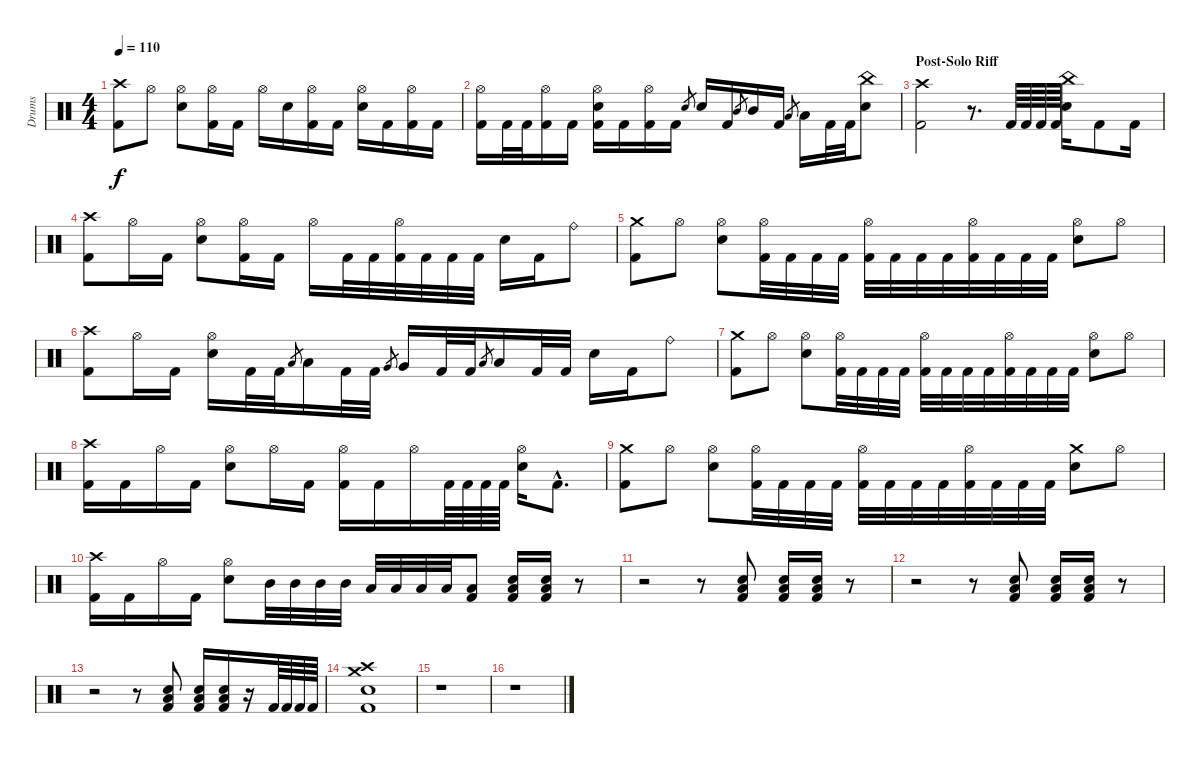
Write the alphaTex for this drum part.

\track ("Drums" "Drums") {instrument percussion}
\staff {score}
\articulation defaults
\ts (4 4)
\tempo 110
\clef neutral
\ks c
("Crash high (hit)" "Kick (hit) 2").8{dy f} "Hi-Hat (open)".8 ("Hi-Hat (open)" "Electric Snare (hit)").8 ("Hi-Hat (open)" "Kick (hit) 2").16 "Kick (hit) 2".16 "Hi-Hat (open)".16 "Electric Snare (hit)".16 ("Hi-Hat (open)" "Kick (hit) 2").16 "Kick (hit) 2".16 ("Hi-Hat (open)" "Electric Snare (hit)").16 "Kick (hit) 2".16 ("Hi-Hat (open)" "Kick (hit) 2").16 "Kick (hit) 2".16 |
("Hi-Hat (open)" "Kick (hit) 2").16 "Kick (hit) 2".32 "Kick (hit) 2".32 ("Hi-Hat (open)" "Kick (hit) 2").16 "Kick (hit) 2".16 ("Hi-Hat (open)" "Electric Snare (hit)" "Kick (hit) 2").16 "Kick (hit) 2".16 ("Hi-Hat (open)" "Kick (hit) 2").16 "Kick (hit) 2".16 "Electric Snare (hit)".8{gr} "Electric Snare (hit)".16 "Kick (hit) 2".16 "Mid Tom (hit)".8{gr} "Mid Tom (hit)".16 "Kick (hit) 2".16 "Low Tom (hit)".8{gr} "Low Tom (hit)".16 "Kick (hit) 2".32 "Kick (hit) 2".32 ("China (hit)" "Electric Snare (hit)").8 |
\section ("" "Post-Solo Riff")
("Crash high (hit)" "Kick (hit) 2").2 r.8{d} "Kick (hit) 2".64 "Kick (hit) 2".64 "Kick (hit) 2".64 "Kick (hit) 2".64 ("China (hit)" "Electric Snare (hit)").16 "Kick (hit) 2".8 "Kick (hit) 2".16 |
("Crash high (hit)" "Kick (hit) 2").8 "Hi-Hat (open)".16 "Kick (hit) 2".16 ("Hi-Hat (open)" "Electric Snare (hit)").8 ("Hi-Hat (open)" "Kick (hit) 2").16 "Kick (hit) 2".16 "Hi-Hat (open)".16 "Kick (hit) 2".32 "Kick (hit) 2".32 ("Hi-Hat (open)" "Kick (hit) 2").32 "Kick (hit) 2".32 "Kick (hit) 2".32 "Kick (hit) 2".32 "Electric Snare (hit)".16 "Kick (hit) 2".16 "Ride (bell)".8 |
("Crash medium (hit)" "Kick (hit) 2").8 "Hi-Hat (open)".8 ("Hi-Hat (open)" "Electric Snare (hit)").8 ("Hi-Hat (open)" "Kick (hit) 2").32 "Kick (hit) 2".32 "Kick (hit) 2".32 "Kick (hit) 2".32 ("Hi-Hat (open)" "Kick (hit) 2").32 "Kick (hit) 2".32 "Kick (hit) 2".32 "Kick (hit) 2".32 ("Hi-Hat (open)" "Kick (hit) 2").32 "Kick (hit) 2".32 "Kick (hit) 2".32 "Kick (hit) 2".32 ("Hi-Hat (open)" "Electric Snare (hit)").8 "Hi-Hat (open)".8 |
("Crash high (hit)" "Kick (hit) 2").8 "Hi-Hat (open)".16 "Kick (hit) 2".16 ("Hi-Hat (open)" "Electric Snare (hit)").16 "Kick (hit) 2".32 "Kick (hit) 2".32 "Low Tom (hit)".8{gr} "Low Tom (hit)".16 "Kick (hit) 2".32 "Kick (hit) 2".32 "Very Low Tom (hit)".8{gr} "Very Low Tom (hit)".16 "Kick (hit) 2".32 "Kick (hit) 2".32 "Low Floor Tom (hit)".8{gr} "Low Floor Tom (hit)".16 "Kick (hit) 2".32 "Kick (hit) 2".32 "Electric Snare (hit)".16 "Kick (hit) 2".16 "Ride (bell)".8 |
("Crash medium (hit)" "Kick (hit) 2").8 "Hi-Hat (open)".8 ("Hi-Hat (open)" "Electric Snare (hit)").8 ("Hi-Hat (open)" "Kick (hit) 2").32 "Kick (hit) 2".32 "Kick (hit) 2".32 "Kick (hit) 2".32 ("Hi-Hat (open)" "Kick (hit) 2").32 "Kick (hit) 2".32 "Kick (hit) 2".32 "Kick (hit) 2".32 ("Hi-Hat (open)" "Kick (hit) 2").32 "Kick (hit) 2".32 "Kick (hit) 2".32 "Kick (hit) 2".32 ("Hi-Hat (open)" "Electric Snare (hit)").8 "Hi-Hat (open)".8 |
("Crash high (hit)" "Kick (hit) 2").16 "Kick (hit) 2".16 "Hi-Hat (open)".16 "Kick (hit) 2".16 ("Hi-Hat (open)" "Electric Snare (hit)").8 "Hi-Hat (open)".16 "Kick (hit) 2".16 ("Hi-Hat (open)" "Kick (hit) 2").16 "Kick (hit) 2".16 "Hi-Hat (open)".16 "Kick (hit) 2".64 "Kick (hit) 2".64 "Kick (hit) 2".64 "Kick (hit) 2".64 ("Hi-Hat (open)" "Electric Snare (hit)").16 "Kick (hit) 2"{hac}.8{d} |
("Crash medium (hit)" "Kick (hit) 2").8 "Hi-Hat (open)".8 ("Hi-Hat (open)" "Electric Snare (hit)").8 ("Hi-Hat (open)" "Kick (hit) 2").32 "Kick (hit) 2".32 "Kick (hit) 2".32 "Kick (hit) 2".32 ("Hi-Hat (open)" "Kick (hit) 2").32 "Kick (hit) 2".32 "Kick (hit) 2".32 "Kick (hit) 2".32 ("Hi-Hat (open)" "Kick (hit) 2").32 "Kick (hit) 2".32 "Kick (hit) 2".32 "Kick (hit) 2".32 ("Crash medium (hit)" "Electric Snare (hit)").8 "Hi-Hat (open)".8 |
("Crash high (hit)" "Kick (hit) 2").16 "Kick (hit) 2".16 "Hi-Hat (open)".16 "Kick (hit) 2".16 ("Hi-Hat (open)" "Electric Snare (hit)").8 "Mid Tom (hit)".32 "Mid Tom (hit)".32 "Mid Tom (hit)".32 "Mid Tom (hit)".32 "Low Tom (hit)".32 "Low Tom (hit)".32 "Low Tom (hit)".32 "Low Tom (hit)".32 ("Low Floor Tom (hit)" "Kick (hit) 2").8 ("Low Floor Tom (hit)" "Electric Snare (hit)" "Kick (hit) 2").16 ("Low Floor Tom (hit)" "Electric Snare (hit)" "Kick (hit) 2").16 r.8 |
r.2 r.8 ("Low Floor Tom (hit)" "Electric Snare (hit)" "Kick (hit) 2").8 ("Low Floor Tom (hit)" "Electric Snare (hit)" "Kick (hit) 2").16 ("Low Floor Tom (hit)" "Electric Snare (hit)" "Kick (hit) 2").16 r.8 |
r.2 r.8 ("Low Floor Tom (hit)" "Electric Snare (hit)" "Kick (hit) 2").8 ("Low Floor Tom (hit)" "Electric Snare (hit)" "Kick (hit) 2").16 ("Low Floor Tom (hit)" "Electric Snare (hit)" "Kick (hit) 2").16 r.8 |
r.2 r.8 ("Low Floor Tom (hit)" "Electric Snare (hit)" "Kick (hit) 2").8 ("Low Floor Tom (hit)" "Electric Snare (hit)" "Kick (hit) 2").16 ("Low Floor Tom (hit)" "Electric Snare (hit)" "Kick (hit) 2").16 r.16 "Kick (hit) 2".64 "Kick (hit) 2".64 "Kick (hit) 2".64 "Kick (hit) 2".64 |
("Crash high (hit)" "Crash medium (hit)" "Electric Snare (hit)" "Kick (hit) 2").1 |
r.1 |
r.1
